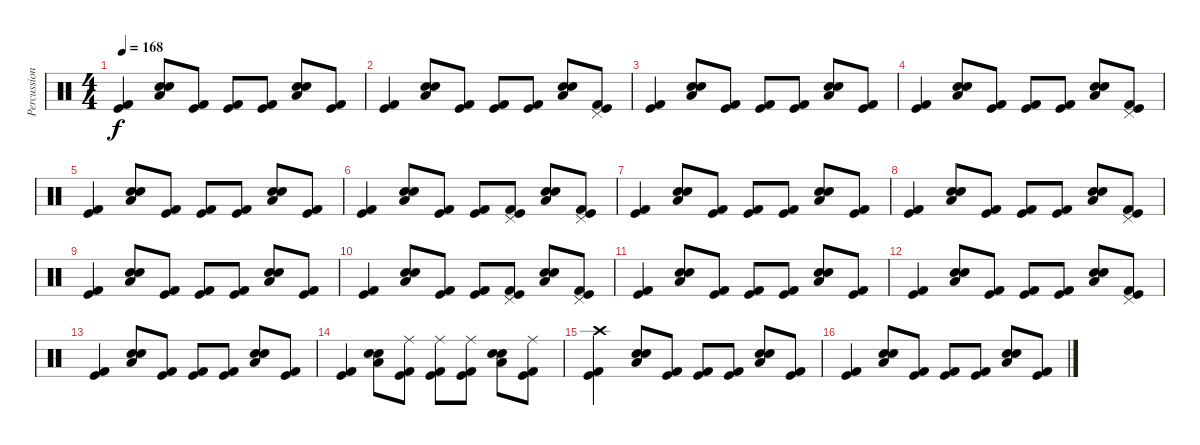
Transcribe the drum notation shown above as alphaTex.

\track ("Percussion" "Percussion") {instrument percussion}
\staff {score}
\articulation defaults
\ts (4 4)
\tempo 168
\clef neutral
\ks c
("Kick (hit)" "Kick (hit) 2").4{dy f} ("Electric Snare (hit)" "Low Floor Tom (hit)" "Snare (hit) 2").8 ("Kick (hit)" "Kick (hit) 2").8 ("Kick (hit)" "Kick (hit) 2").8 ("Kick (hit)" "Kick (hit) 2").8 ("Electric Snare (hit)" "Low Floor Tom (hit)" "Snare (hit) 2").8 ("Kick (hit)" "Kick (hit) 2").8 |
("Kick (hit)" "Kick (hit) 2").4 ("Electric Snare (hit)" "Low Floor Tom (hit)" "Snare (hit) 2").8 ("Kick (hit)" "Kick (hit) 2").8 ("Kick (hit)" "Kick (hit) 2").8 ("Kick (hit)" "Kick (hit) 2").8 ("Electric Snare (hit)" "Low Floor Tom (hit)" "Snare (hit) 2").8 ("Pedal Hi-Hat (hit)" "Kick (hit)" "Kick (hit) 2").8 |
("Kick (hit)" "Kick (hit) 2").4 ("Electric Snare (hit)" "Low Floor Tom (hit)" "Snare (hit) 2").8 ("Kick (hit)" "Kick (hit) 2").8 ("Kick (hit)" "Kick (hit) 2").8 ("Kick (hit)" "Kick (hit) 2").8 ("Electric Snare (hit)" "Low Floor Tom (hit)" "Snare (hit) 2").8 ("Kick (hit)" "Kick (hit) 2").8 |
("Kick (hit)" "Kick (hit) 2").4 ("Electric Snare (hit)" "Low Floor Tom (hit)" "Snare (hit) 2").8 ("Kick (hit)" "Kick (hit) 2").8 ("Kick (hit)" "Kick (hit) 2").8 ("Kick (hit)" "Kick (hit) 2").8 ("Electric Snare (hit)" "Low Floor Tom (hit)" "Snare (hit) 2").8 ("Pedal Hi-Hat (hit)" "Kick (hit)" "Kick (hit) 2").8 |
("Kick (hit)" "Kick (hit) 2").4 ("Electric Snare (hit)" "Low Floor Tom (hit)" "Snare (hit) 2").8 ("Kick (hit)" "Kick (hit) 2").8 ("Kick (hit)" "Kick (hit) 2").8 ("Kick (hit)" "Kick (hit) 2").8 ("Electric Snare (hit)" "Low Floor Tom (hit)" "Snare (hit) 2").8 ("Kick (hit)" "Kick (hit) 2").8 |
("Kick (hit)" "Kick (hit) 2").4 ("Electric Snare (hit)" "Low Floor Tom (hit)" "Snare (hit) 2").8 ("Kick (hit)" "Kick (hit) 2").8 ("Kick (hit)" "Kick (hit) 2").8 ("Pedal Hi-Hat (hit)" "Kick (hit)" "Kick (hit) 2").8 ("Electric Snare (hit)" "Low Floor Tom (hit)" "Snare (hit) 2").8 ("Pedal Hi-Hat (hit)" "Kick (hit)" "Kick (hit) 2").8 |
("Kick (hit)" "Kick (hit) 2").4 ("Electric Snare (hit)" "Low Floor Tom (hit)" "Snare (hit) 2").8 ("Kick (hit)" "Kick (hit) 2").8 ("Kick (hit)" "Kick (hit) 2").8 ("Kick (hit)" "Kick (hit) 2").8 ("Electric Snare (hit)" "Low Floor Tom (hit)" "Snare (hit) 2").8 ("Kick (hit)" "Kick (hit) 2").8 |
("Kick (hit)" "Kick (hit) 2").4 ("Electric Snare (hit)" "Low Floor Tom (hit)" "Snare (hit) 2").8 ("Kick (hit)" "Kick (hit) 2").8 ("Kick (hit)" "Kick (hit) 2").8 ("Kick (hit)" "Kick (hit) 2").8 ("Electric Snare (hit)" "Low Floor Tom (hit)" "Snare (hit) 2").8 ("Pedal Hi-Hat (hit)" "Kick (hit)" "Kick (hit) 2").8 |
("Kick (hit)" "Kick (hit) 2").4 ("Electric Snare (hit)" "Low Floor Tom (hit)" "Snare (hit) 2").8 ("Kick (hit)" "Kick (hit) 2").8 ("Kick (hit)" "Kick (hit) 2").8 ("Kick (hit)" "Kick (hit) 2").8 ("Electric Snare (hit)" "Low Floor Tom (hit)" "Snare (hit) 2").8 ("Kick (hit)" "Kick (hit) 2").8 |
("Kick (hit)" "Kick (hit) 2").4 ("Electric Snare (hit)" "Low Floor Tom (hit)" "Snare (hit) 2").8 ("Kick (hit)" "Kick (hit) 2").8 ("Kick (hit)" "Kick (hit) 2").8 ("Pedal Hi-Hat (hit)" "Kick (hit)" "Kick (hit) 2").8 ("Electric Snare (hit)" "Low Floor Tom (hit)" "Snare (hit) 2").8 ("Pedal Hi-Hat (hit)" "Kick (hit)" "Kick (hit) 2").8 |
("Kick (hit)" "Kick (hit) 2").4 ("Electric Snare (hit)" "Low Floor Tom (hit)" "Snare (hit) 2").8 ("Kick (hit)" "Kick (hit) 2").8 ("Kick (hit)" "Kick (hit) 2").8 ("Kick (hit)" "Kick (hit) 2").8 ("Electric Snare (hit)" "Low Floor Tom (hit)" "Snare (hit) 2").8 ("Kick (hit)" "Kick (hit) 2").8 |
("Kick (hit)" "Kick (hit) 2").4 ("Electric Snare (hit)" "Low Floor Tom (hit)" "Snare (hit) 2").8 ("Kick (hit)" "Kick (hit) 2").8 ("Kick (hit)" "Kick (hit) 2").8 ("Kick (hit)" "Kick (hit) 2").8 ("Electric Snare (hit)" "Low Floor Tom (hit)" "Snare (hit) 2").8 ("Pedal Hi-Hat (hit)" "Kick (hit)" "Kick (hit) 2").8 |
("Kick (hit)" "Kick (hit) 2").4 ("Electric Snare (hit)" "Low Floor Tom (hit)" "Snare (hit) 2").8 ("Kick (hit)" "Kick (hit) 2").8 ("Kick (hit)" "Kick (hit) 2").8 ("Kick (hit)" "Kick (hit) 2").8 ("Electric Snare (hit)" "Low Floor Tom (hit)" "Snare (hit) 2").8 ("Kick (hit)" "Kick (hit) 2").8 |
("Kick (hit)" "Kick (hit) 2").4 ("Electric Snare (hit)" "Low Floor Tom (hit)" "Snare (hit) 2").8 ("Ride (middle)" "Kick (hit)" "Kick (hit) 2").8 ("Ride (middle)" "Kick (hit)" "Kick (hit) 2").8 ("Ride (middle)" "Kick (hit)" "Kick (hit) 2").8 ("Electric Snare (hit)" "Low Floor Tom (hit)" "Snare (hit) 2").8 ("Ride (middle)" "Kick (hit)" "Kick (hit) 2").8 |
("Crash high (hit)" "Kick (hit)" "Kick (hit) 2").4 ("Electric Snare (hit)" "Low Floor Tom (hit)" "Snare (hit) 2").8 ("Kick (hit)" "Kick (hit) 2").8 ("Kick (hit)" "Kick (hit) 2").8 ("Kick (hit)" "Kick (hit) 2").8 ("Electric Snare (hit)" "Low Floor Tom (hit)" "Snare (hit) 2").8 ("Kick (hit)" "Kick (hit) 2").8 |
("Kick (hit)" "Kick (hit) 2").4 ("Electric Snare (hit)" "Low Floor Tom (hit)" "Snare (hit) 2").8 ("Kick (hit)" "Kick (hit) 2").8 ("Kick (hit)" "Kick (hit) 2").8 ("Kick (hit)" "Kick (hit) 2").8 ("Electric Snare (hit)" "Low Floor Tom (hit)" "Snare (hit) 2").8 ("Kick (hit)" "Kick (hit) 2").8
